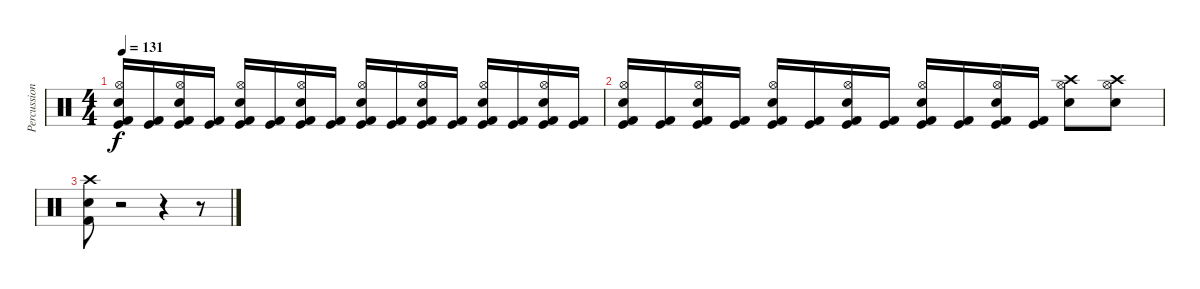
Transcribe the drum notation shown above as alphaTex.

\track ("Percussion" "Percussion") {instrument percussion}
\staff {score}
\articulation defaults
\ts (4 4)
\tempo 131
\clef neutral
\ks c
("Snare (hit) 2" "Hi-Hat (open)" "Kick (hit)" "Kick (hit) 2").16{dy f} ("Kick (hit)" "Kick (hit) 2").16 ("Snare (hit) 2" "Hi-Hat (open)" "Kick (hit)" "Kick (hit) 2").16 ("Kick (hit)" "Kick (hit) 2").16 ("Snare (hit) 2" "Hi-Hat (open)" "Kick (hit)" "Kick (hit) 2").16 ("Kick (hit)" "Kick (hit) 2").16 ("Snare (hit) 2" "Hi-Hat (open)" "Kick (hit)" "Kick (hit) 2").16 ("Kick (hit)" "Kick (hit) 2").16 ("Snare (hit) 2" "Hi-Hat (open)" "Kick (hit)" "Kick (hit) 2").16 ("Kick (hit)" "Kick (hit) 2").16 ("Snare (hit) 2" "Hi-Hat (open)" "Kick (hit)" "Kick (hit) 2").16 ("Kick (hit)" "Kick (hit) 2").16 ("Snare (hit) 2" "Hi-Hat (open)" "Kick (hit)" "Kick (hit) 2").16 ("Kick (hit)" "Kick (hit) 2").16 ("Snare (hit) 2" "Hi-Hat (open)" "Kick (hit)" "Kick (hit) 2").16 ("Kick (hit)" "Kick (hit) 2").16 |
("Snare (hit) 2" "Hi-Hat (open)" "Kick (hit)" "Kick (hit) 2").16 ("Kick (hit)" "Kick (hit) 2").16 ("Snare (hit) 2" "Hi-Hat (open)" "Kick (hit)" "Kick (hit) 2").16 ("Kick (hit)" "Kick (hit) 2").16 ("Snare (hit) 2" "Hi-Hat (open)" "Kick (hit)" "Kick (hit) 2").16 ("Kick (hit)" "Kick (hit) 2").16 ("Snare (hit) 2" "Hi-Hat (open)" "Kick (hit)" "Kick (hit) 2").16 ("Kick (hit)" "Kick (hit) 2").16 ("Snare (hit) 2" "Hi-Hat (open)" "Kick (hit)" "Kick (hit) 2").16 ("Kick (hit)" "Kick (hit) 2").16 ("Snare (hit) 2" "Hi-Hat (open)" "Kick (hit)" "Kick (hit) 2").16 ("Kick (hit)" "Kick (hit) 2").16 ("Hi-Hat (open)" "Crash high (hit)" "Snare (hit) 2").8 ("Hi-Hat (open)" "Crash high (hit)" "Snare (hit) 2").8 |
("Crash high (hit)" "Snare (hit) 2" "Kick (hit) 2").8 r.2 r.4 r.8
